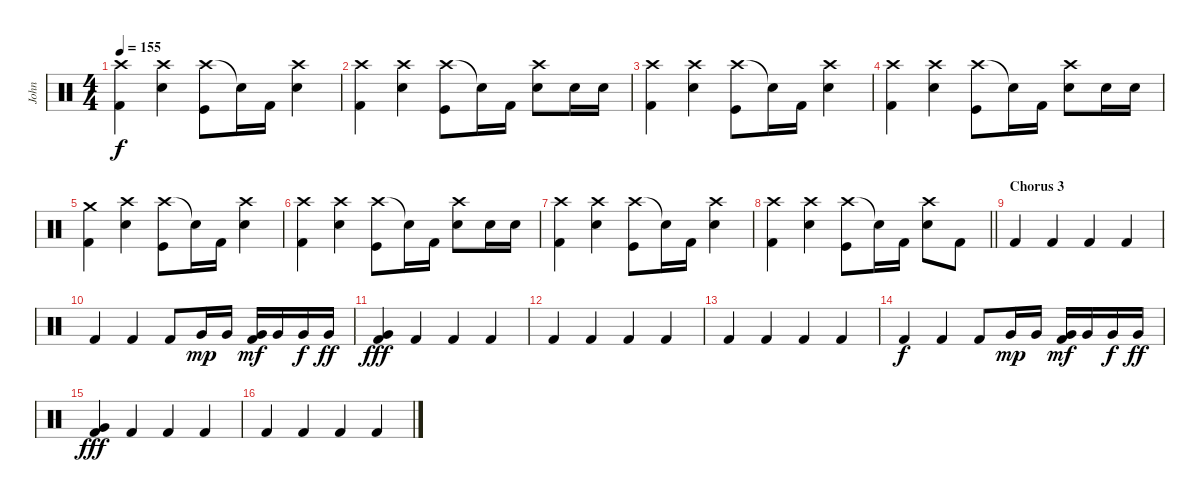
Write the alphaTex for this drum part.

\track ("John" "John") {instrument percussion}
\staff {score}
\articulation defaults
\ts (4 4)
\tempo 155
\clef neutral
\ks c
("Crash high (hit)" "Kick (hit) 2").4{dy f} ("Crash high (hit)" "Snare (hit) 2").4 ("Crash high (hit)" "Kick (hit)").8 "Snare (hit)"{t}.16 "Kick (hit) 2".16 ("Crash high (hit)" "Snare (hit) 2").4 |
("Crash high (hit)" "Kick (hit) 2").4 ("Crash high (hit)" "Snare (hit) 2").4 ("Crash high (hit)" "Kick (hit)").8 "Snare (hit)"{t}.16 "Kick (hit) 2".16 ("Crash high (hit)" "Snare (hit) 2").8 "Snare (hit) 2".16 "Snare (hit) 2".16 |
("Crash high (hit)" "Kick (hit) 2").4 ("Crash high (hit)" "Snare (hit) 2").4 ("Crash high (hit)" "Kick (hit)").8 "Snare (hit)"{t}.16 "Kick (hit) 2".16 ("Crash high (hit)" "Snare (hit) 2").4 |
("Crash high (hit)" "Kick (hit) 2").4 ("Crash high (hit)" "Snare (hit) 2").4 ("Crash high (hit)" "Kick (hit)").8 "Snare (hit)"{t}.16 "Kick (hit) 2".16 ("Crash high (hit)" "Snare (hit) 2").8 "Snare (hit) 2".16 "Snare (hit) 2".16 |
("Crash medium (hit)" "Kick (hit) 2").4 ("Crash high (hit)" "Snare (hit) 2").4 ("Crash high (hit)" "Kick (hit)").8 "Snare (hit)"{t}.16 "Kick (hit) 2".16 ("Crash high (hit)" "Snare (hit) 2").4 |
("Crash high (hit)" "Kick (hit) 2").4 ("Crash high (hit)" "Snare (hit) 2").4 ("Crash high (hit)" "Kick (hit)").8 "Snare (hit)"{t}.16 "Kick (hit) 2".16 ("Crash high (hit)" "Snare (hit) 2").8 "Snare (hit) 2".16 "Snare (hit) 2".16 |
("Crash high (hit)" "Kick (hit) 2").4 ("Crash high (hit)" "Snare (hit) 2").4 ("Crash high (hit)" "Kick (hit)").8 "Snare (hit)"{t}.16 "Kick (hit) 2".16 ("Crash high (hit)" "Snare (hit) 2").4 |
\barLineRight lightlight
("Crash high (hit)" "Kick (hit) 2").4 ("Crash high (hit)" "Snare (hit) 2").4 ("Crash high (hit)" "Kick (hit)").8 "Snare (hit)"{t}.16 "Kick (hit) 2".16 ("Crash high (hit)" "Snare (hit) 2").8 "Kick (hit) 2".8 |
\section ("" "Chorus 3")
"Kick (hit) 2".4 "Kick (hit) 2".4 "Kick (hit) 2".4 "Kick (hit) 2".4 |
"Kick (hit) 2".4 "Kick (hit) 2".4 "Kick (hit) 2".8 "Very Low Tom (hit)".16{dy mp} "Very Low Tom (hit)".16 ("Very Low Tom (hit)" "Kick (hit) 2").16{dy mf} "Very Low Tom (hit)".16 "Very Low Tom (hit)".16{dy f} "Very Low Tom (hit)".16{dy ff} |
("Very Low Tom (hit)" "Kick (hit) 2").4{dy fff} "Kick (hit) 2".4 "Kick (hit) 2".4 "Kick (hit) 2".4 |
"Kick (hit) 2".4 "Kick (hit) 2".4 "Kick (hit) 2".4 "Kick (hit) 2".4 |
"Kick (hit) 2".4 "Kick (hit) 2".4 "Kick (hit) 2".4 "Kick (hit) 2".4 |
"Kick (hit) 2".4{dy f} "Kick (hit) 2".4 "Kick (hit) 2".8 "Very Low Tom (hit)".16{dy mp} "Very Low Tom (hit)".16 ("Very Low Tom (hit)" "Kick (hit) 2").16{dy mf} "Very Low Tom (hit)".16 "Very Low Tom (hit)".16{dy f} "Very Low Tom (hit)".16{dy ff} |
("Very Low Tom (hit)" "Kick (hit) 2").4{dy fff} "Kick (hit) 2".4 "Kick (hit) 2".4 "Kick (hit) 2".4 |
"Kick (hit) 2".4 "Kick (hit) 2".4 "Kick (hit) 2".4 "Kick (hit) 2".4
